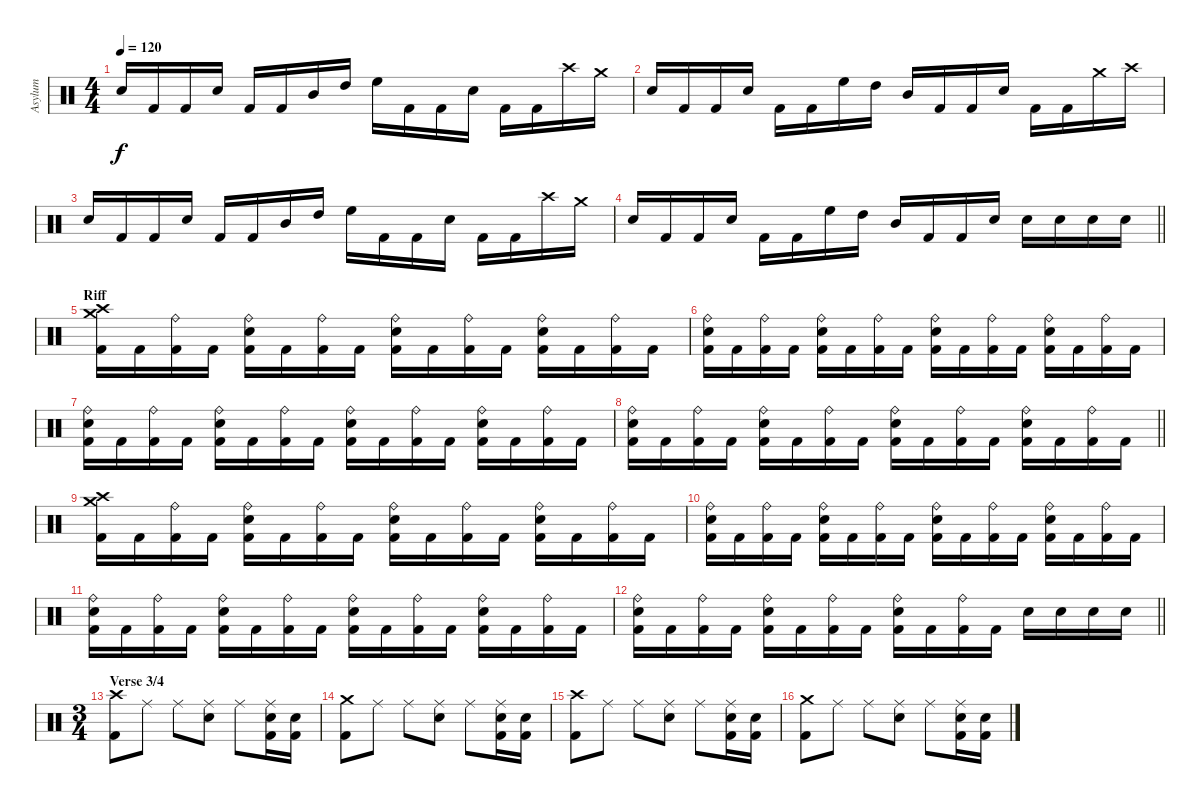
\track ("Asylum" "Asylum") {instrument percussion}
\staff {score}
\articulation defaults
\ts (4 4)
\tempo 120
\clef neutral
\ks c "Electric Snare (hit)".16{dy f} "Kick (hit) 2".16 "Kick (hit) 2".16 "Electric Snare (hit)".16 "Kick (hit) 2".16 "Kick (hit) 2".16 "Mid Tom (hit)".16 "High Tom (hit)".16 "High Floor Tom (hit)".16 "Kick (hit) 2".16 "Kick (hit) 2".16 "Electric Snare (hit)".16 "Kick (hit) 2".16 "Kick (hit) 2".16 "Crash high (hit)".16 "Crash medium (hit)".16
|
"Electric Snare (hit)".16 "Kick (hit) 2".16 "Kick (hit) 2".16 "Electric Snare (hit)".16 "Kick (hit) 2".16 "Kick (hit) 2".16 "High Floor Tom (hit)".16 "High Tom (hit)".16 "Mid Tom (hit)".16 "Kick (hit) 2".16 "Kick (hit) 2".16 "Electric Snare (hit)".16 "Kick (hit) 2".16 "Kick (hit) 2".16 "Crash medium (hit)".16 "Crash high (hit)".16 |
"Electric Snare (hit)".16 "Kick (hit) 2".16 "Kick (hit) 2".16 "Electric Snare (hit)".16 "Kick (hit) 2".16 "Kick (hit) 2".16 "Mid Tom (hit)".16 "High Tom (hit)".16 "High Floor Tom (hit)".16 "Kick (hit) 2".16 "Kick (hit) 2".16 "Electric Snare (hit)".16 "Kick (hit) 2".16 "Kick (hit) 2".16 "Crash high (hit)".16 "Crash medium (hit)".16 |
\barLineRight lightlight "Electric Snare (hit)".16 "Kick (hit) 2".16 "Kick (hit) 2".16 "Electric Snare (hit)".16 "Kick (hit) 2".16 "Kick (hit) 2".16 "High Floor Tom (hit)".16 "High Tom (hit)".16 "Mid Tom (hit)".16 "Kick (hit) 2".16 "Kick (hit) 2".16 "Electric Snare (hit)".16 "Electric Snare (hit)".16 "Electric Snare (hit)".16 "Electric Snare (hit)".16 "Electric Snare (hit)".16
|
\section ("" "Riff")
("Crash medium (hit)" "Crash high (hit)" "Kick (hit) 2").16 "Kick (hit) 2".16 ("Ride (bell)" "Kick (hit) 2").16 "Kick (hit) 2".16 ("Ride (bell)" "Electric Snare (hit)" "Kick (hit) 2").16 "Kick (hit) 2".16 ("Ride (bell)" "Kick (hit) 2").16 "Kick (hit) 2".16 ("Ride (bell)" "Electric Snare (hit)" "Kick (hit) 2").16 "Kick (hit) 2".16 ("Ride (bell)" "Kick (hit) 2").16 "Kick (hit) 2".16 ("Ride (bell)" "Electric Snare (hit)" "Kick (hit) 2").16 "Kick (hit) 2".16 ("Ride (bell)" "Kick (hit) 2").16 "Kick (hit) 2".16 |
("Ride (bell)" "Electric Snare (hit)" "Kick (hit) 2").16 "Kick (hit) 2".16 ("Ride (bell)" "Kick (hit) 2").16 "Kick (hit) 2".16 ("Ride (bell)" "Electric Snare (hit)" "Kick (hit) 2").16 "Kick (hit) 2".16 ("Ride (bell)" "Kick (hit) 2").16 "Kick (hit) 2".16 ("Ride (bell)" "Electric Snare (hit)" "Kick (hit) 2").16 "Kick (hit) 2".16 ("Ride (bell)" "Kick (hit) 2").16 "Kick (hit) 2".16 ("Ride (bell)" "Electric Snare (hit)" "Kick (hit) 2").16 "Kick (hit) 2".16 ("Ride (bell)" "Kick (hit) 2").16 "Kick (hit) 2".16 |
("Ride (bell)" "Electric Snare (hit)" "Kick (hit) 2").16 "Kick (hit) 2".16 ("Ride (bell)" "Kick (hit) 2").16 "Kick (hit) 2".16 ("Ride (bell)" "Electric Snare (hit)" "Kick (hit) 2").16 "Kick (hit) 2".16 ("Ride (bell)" "Kick (hit) 2").16 "Kick (hit) 2".16 ("Ride (bell)" "Electric Snare (hit)" "Kick (hit) 2").16 "Kick (hit) 2".16 ("Ride (bell)" "Kick (hit) 2").16 "Kick (hit) 2".16 ("Ride (bell)" "Electric Snare (hit)" "Kick (hit) 2").16 "Kick (hit) 2".16 ("Ride (bell)" "Kick (hit) 2").16 "Kick (hit) 2".16 |
\barLineRight lightlight
("Ride (bell)" "Electric Snare (hit)" "Kick (hit) 2").16 "Kick (hit) 2".16 ("Ride (bell)" "Kick (hit) 2").16 "Kick (hit) 2".16 ("Ride (bell)" "Electric Snare (hit)" "Kick (hit) 2").16 "Kick (hit) 2".16 ("Ride (bell)" "Kick (hit) 2").16 "Kick (hit) 2".16 ("Ride (bell)" "Electric Snare (hit)" "Kick (hit) 2").16 "Kick (hit) 2".16 ("Ride (bell)" "Kick (hit) 2").16 "Kick (hit) 2".16 ("Ride (bell)" "Electric Snare (hit)" "Kick (hit) 2").16 "Kick (hit) 2".16 ("Ride (bell)" "Kick (hit) 2").16 "Kick (hit) 2".16 |
\section ("" "")
("Crash medium (hit)" "Crash high (hit)" "Kick (hit) 2").16 "Kick (hit) 2".16 ("Ride (bell)" "Kick (hit) 2").16 "Kick (hit) 2".16 ("Ride (bell)" "Electric Snare (hit)" "Kick (hit) 2").16 "Kick (hit) 2".16 ("Ride (bell)" "Kick (hit) 2").16 "Kick (hit) 2".16 ("Ride (bell)" "Electric Snare (hit)" "Kick (hit) 2").16 "Kick (hit) 2".16 ("Ride (bell)" "Kick (hit) 2").16 "Kick (hit) 2".16 ("Ride (bell)" "Electric Snare (hit)" "Kick (hit) 2").16 "Kick (hit) 2".16 ("Ride (bell)" "Kick (hit) 2").16 "Kick (hit) 2".16 |
("Ride (bell)" "Electric Snare (hit)" "Kick (hit) 2").16 "Kick (hit) 2".16 ("Ride (bell)" "Kick (hit) 2").16 "Kick (hit) 2".16 ("Ride (bell)" "Electric Snare (hit)" "Kick (hit) 2").16 "Kick (hit) 2".16 ("Ride (bell)" "Kick (hit) 2").16 "Kick (hit) 2".16 ("Ride (bell)" "Electric Snare (hit)" "Kick (hit) 2").16 "Kick (hit) 2".16 ("Ride (bell)" "Kick (hit) 2").16 "Kick (hit) 2".16 ("Ride (bell)" "Electric Snare (hit)" "Kick (hit) 2").16 "Kick (hit) 2".16 ("Ride (bell)" "Kick (hit) 2").16 "Kick (hit) 2".16 |
("Ride (bell)" "Electric Snare (hit)" "Kick (hit) 2").16 "Kick (hit) 2".16 ("Ride (bell)" "Kick (hit) 2").16 "Kick (hit) 2".16 ("Ride (bell)" "Electric Snare (hit)" "Kick (hit) 2").16 "Kick (hit) 2".16 ("Ride (bell)" "Kick (hit) 2").16 "Kick (hit) 2".16 ("Ride (bell)" "Electric Snare (hit)" "Kick (hit) 2").16 "Kick (hit) 2".16 ("Ride (bell)" "Kick (hit) 2").16 "Kick (hit) 2".16 ("Ride (bell)" "Electric Snare (hit)" "Kick (hit) 2").16 "Kick (hit) 2".16 ("Ride (bell)" "Kick (hit) 2").16 "Kick (hit) 2".16 |
\barLineRight lightlight
("Ride (bell)" "Electric Snare (hit)" "Kick (hit) 2").16 "Kick (hit) 2".16 ("Ride (bell)" "Kick (hit) 2").16 "Kick (hit) 2".16 ("Ride (bell)" "Electric Snare (hit)" "Kick (hit) 2").16 "Kick (hit) 2".16 ("Ride (bell)" "Kick (hit) 2").16 "Kick (hit) 2".16 ("Ride (bell)" "Electric Snare (hit)" "Kick (hit) 2").16 "Kick (hit) 2".16 ("Ride (bell)" "Kick (hit) 2").16 "Kick (hit) 2".16 "Electric Snare (hit)".16 "Electric Snare (hit)".16 "Electric Snare (hit)".16 "Electric Snare (hit)".16 |
\ts (3 4)
\section ("" "Verse 3/4")
("Crash high (hit)" "Kick (hit) 2").8 "Ride (middle)".8 "Ride (middle)".8 ("Ride (middle)" "Electric Snare (hit)").8 "Ride (middle)".8 ("Ride (middle)" "Electric Snare (hit)" "Kick (hit) 2").16 ("Electric Snare (hit)" "Kick (hit) 2").16 |
("Crash medium (hit)" "Kick (hit) 2").8 "Ride (middle)".8 "Ride (middle)".8 ("Ride (middle)" "Electric Snare (hit)").8 "Ride (middle)".8 ("Ride (middle)" "Electric Snare (hit)" "Kick (hit) 2").16 ("Electric Snare (hit)" "Kick (hit) 2").16 |
("Crash high (hit)" "Kick (hit) 2").8 "Ride (middle)".8 "Ride (middle)".8 ("Ride (middle)" "Electric Snare (hit)").8 "Ride (middle)".8 ("Ride (middle)" "Electric Snare (hit)" "Kick (hit) 2").16 ("Electric Snare (hit)" "Kick (hit) 2").16 |
("Crash medium (hit)" "Kick (hit) 2").8 "Ride (middle)".8 "Ride (middle)".8 ("Ride (middle)" "Electric Snare (hit)").8 "Ride (middle)".8 ("Ride (middle)" "Electric Snare (hit)" "Kick (hit) 2").16 ("Electric Snare (hit)" "Kick (hit) 2").16
